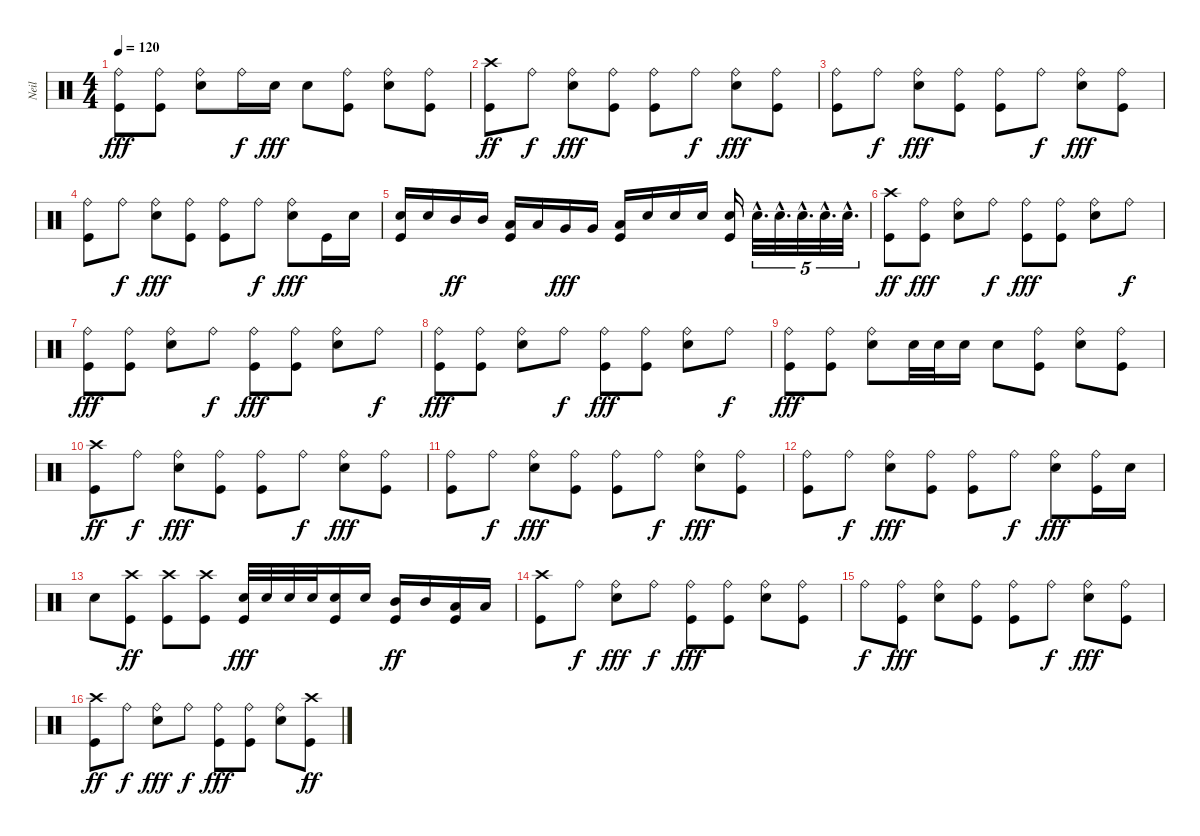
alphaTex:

\track ("Neil" "Neil") {instrument percussion}
\staff {score}
\articulation defaults
\ts (4 4)
\tempo 120
\clef neutral
\ks c
("Kick (hit)" "Ride (bell)").8{dy fff} ("Kick (hit)" "Ride (bell)").8 ("Snare (hit) 2" "Ride (bell)").8 "Ride (bell)".16{dy f} "Snare (hit) 2".16{dy fff} "Snare (hit) 2".8 ("Kick (hit)" "Ride (bell)").8 ("Snare (hit) 2" "Ride (bell)").8 ("Kick (hit)" "Ride (bell)").8 |
("Kick (hit)" "Crash high (hit)").8{dy ff} "Ride (bell)".8{dy f} ("Snare (hit) 2" "Ride (bell)").8{dy fff} ("Kick (hit)" "Ride (bell)").8 ("Kick (hit)" "Ride (bell)").8 "Ride (bell)".8{dy f} ("Snare (hit) 2" "Ride (bell)").8{dy fff} ("Kick (hit)" "Ride (bell)").8 |
("Kick (hit)" "Ride (bell)").8 "Ride (bell)".8{dy f} ("Snare (hit) 2" "Ride (bell)").8{dy fff} ("Kick (hit)" "Ride (bell)").8 ("Kick (hit)" "Ride (bell)").8 "Ride (bell)".8{dy f} ("Snare (hit) 2" "Ride (bell)").8{dy fff} ("Kick (hit)" "Ride (bell)").8 |
("Kick (hit)" "Ride (bell)").8 "Ride (bell)".8{dy f} ("Snare (hit) 2" "Ride (bell)").8{dy fff} ("Kick (hit)" "Ride (bell)").8 ("Kick (hit)" "Ride (bell)").8 "Ride (bell)".8{dy f} ("Snare (hit) 2" "Ride (bell)").8{dy fff} "Kick (hit)".16 "Snare (hit) 2".16 |
("Kick (hit)" "Snare (hit) 2").16 "Snare (hit) 2".16 "Mid Tom (hit)".16{dy ff} "Mid Tom (hit)".16 ("Kick (hit)" "Low Tom (hit)").16 "Low Tom (hit)".16 "Very Low Tom (hit)".16{dy fff} "Very Low Tom (hit)".16 ("Kick (hit)" "Low Floor Tom (hit)").16 "Snare (hit) 2".16 "Snare (hit) 2".16 "Snare (hit) 2".16 ("Kick (hit)" "Snare (hit) 2").16 "Snare (hit) 2"{hac}.32{d tu (5 4)} "Snare (hit) 2"{hac}.32{d tu (5 4)} "Snare (hit) 2"{hac}.32{d tu (5 4)} "Snare (hit) 2"{hac}.32{d tu (5 4)} "Snare (hit) 2"{hac}.32{d tu (5 4)} |
("Kick (hit)" "Crash high (hit)").8{dy ff} ("Kick (hit)" "Ride (bell)").8{dy fff} ("Snare (hit) 2" "Ride (bell)").8 "Ride (bell)".8{dy f} ("Kick (hit)" "Ride (bell)").8{dy fff} ("Kick (hit)" "Ride (bell)").8 ("Snare (hit) 2" "Ride (bell)").8 "Ride (bell)".8{dy f} |
("Kick (hit)" "Ride (bell)").8{dy fff} ("Kick (hit)" "Ride (bell)").8 ("Snare (hit) 2" "Ride (bell)").8 "Ride (bell)".8{dy f} ("Kick (hit)" "Ride (bell)").8{dy fff} ("Kick (hit)" "Ride (bell)").8 ("Snare (hit) 2" "Ride (bell)").8 "Ride (bell)".8{dy f} |
("Kick (hit)" "Ride (bell)").8{dy fff} ("Kick (hit)" "Ride (bell)").8 ("Snare (hit) 2" "Ride (bell)").8 "Ride (bell)".8{dy f} ("Kick (hit)" "Ride (bell)").8{dy fff} ("Kick (hit)" "Ride (bell)").8 ("Snare (hit) 2" "Ride (bell)").8 "Ride (bell)".8{dy f} |
("Kick (hit)" "Ride (bell)").8{dy fff} ("Kick (hit)" "Ride (bell)").8 ("Snare (hit) 2" "Ride (bell)").8 "Snare (hit) 2".32 "Snare (hit) 2".32 "Snare (hit) 2".16 "Snare (hit) 2".8 ("Kick (hit)" "Ride (bell)").8 ("Snare (hit) 2" "Ride (bell)").8 ("Kick (hit)" "Ride (bell)").8 |
("Kick (hit)" "Crash high (hit)").8{dy ff} "Ride (bell)".8{dy f} ("Snare (hit) 2" "Ride (bell)").8{dy fff} ("Kick (hit)" "Ride (bell)").8 ("Kick (hit)" "Ride (bell)").8 "Ride (bell)".8{dy f} ("Snare (hit) 2" "Ride (bell)").8{dy fff} ("Kick (hit)" "Ride (bell)").8 |
("Kick (hit)" "Ride (bell)").8 "Ride (bell)".8{dy f} ("Snare (hit) 2" "Ride (bell)").8{dy fff} ("Kick (hit)" "Ride (bell)").8 ("Kick (hit)" "Ride (bell)").8 "Ride (bell)".8{dy f} ("Snare (hit) 2" "Ride (bell)").8{dy fff} ("Kick (hit)" "Ride (bell)").8 |
("Kick (hit)" "Ride (bell)").8 "Ride (bell)".8{dy f} ("Snare (hit) 2" "Ride (bell)").8{dy fff} ("Kick (hit)" "Ride (bell)").8 ("Kick (hit)" "Ride (bell)").8 "Ride (bell)".8{dy f} ("Snare (hit) 2" "Ride (bell)").8{dy fff} ("Kick (hit)" "Ride (bell)").16 "Snare (hit) 2".16 |
"Snare (hit) 2".8 ("Kick (hit)" "Crash high (hit)").8{dy ff} ("Kick (hit)" "Crash high (hit)").8 ("Kick (hit)" "Crash high (hit)").8 ("Kick (hit)" "Snare (hit) 2").32{dy fff} "Snare (hit) 2".32 "Snare (hit) 2".32 "Snare (hit) 2".32 ("Kick (hit)" "Snare (hit) 2").16 "Snare (hit) 2".16 ("Kick (hit)" "Mid Tom (hit)").16{dy ff} "Mid Tom (hit)".16 ("Kick (hit)" "Low Tom (hit)").16 "Low Tom (hit)".16 |
("Kick (hit)" "Crash high (hit)").8 "Ride (bell)".8{dy f} ("Snare (hit) 2" "Ride (bell)").8{dy fff} "Ride (bell)".8{dy f} ("Kick (hit)" "Ride (bell)").8{dy fff} ("Kick (hit)" "Ride (bell)").8 ("Snare (hit) 2" "Ride (bell)").8 ("Kick (hit)" "Ride (bell)").8 |
"Ride (bell)".8{dy f} ("Kick (hit)" "Ride (bell)").8{dy fff} ("Snare (hit) 2" "Ride (bell)").8 ("Kick (hit)" "Ride (bell)").8 ("Kick (hit)" "Ride (bell)").8 "Ride (bell)".8{dy f} ("Snare (hit) 2" "Ride (bell)").8{dy fff} ("Kick (hit)" "Ride (bell)").8 |
("Kick (hit)" "Crash high (hit)").8{dy ff} "Ride (bell)".8{dy f} ("Snare (hit) 2" "Ride (bell)").8{dy fff} "Ride (bell)".8{dy f} ("Kick (hit)" "Ride (bell)").8{dy fff} ("Kick (hit)" "Ride (bell)").8 ("Snare (hit) 2" "Ride (bell)").8 ("Kick (hit)" "Crash high (hit)").8{dy ff}
